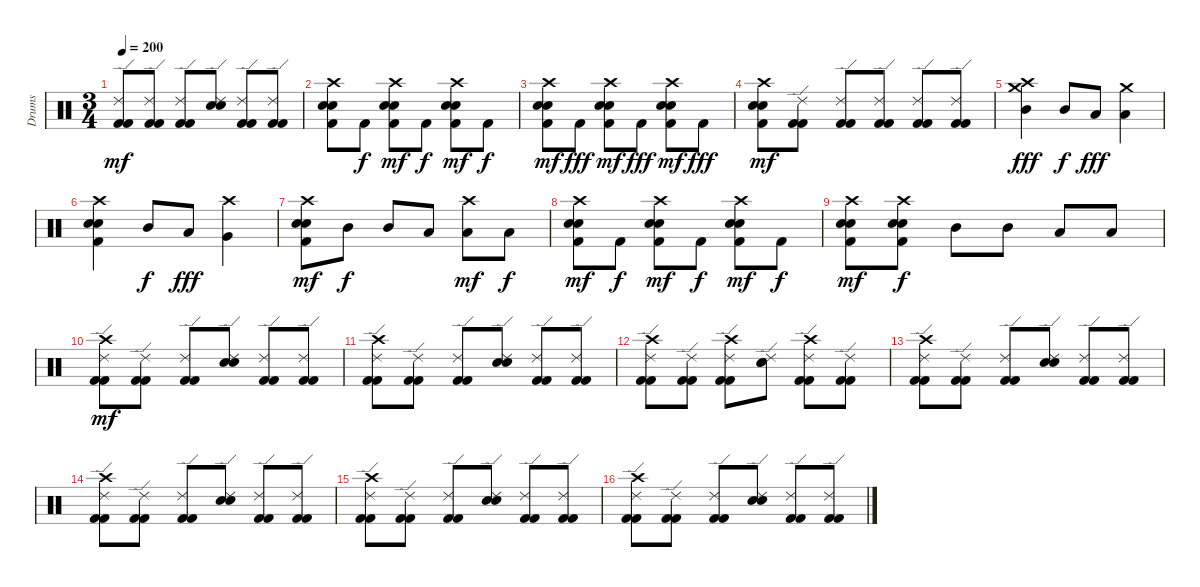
\track ("Drums" "Drums") {instrument percussion bank 41}
\staff
\articulation defaults
\ts (3 4)
\tempo 200
\clef neutral
\ks c
("Kick (hit) 2" "Kick (hit) 2" "Ride (edge) 2").8{dy mf} ("Kick (hit) 2" "Kick (hit) 2" "Ride (edge) 2").8 ("Kick (hit) 2" "Kick (hit) 2" "Ride (edge) 2").8 ("Snare (hit) 2" "Electric Snare (hit)" "Ride (edge) 2").8 ("Kick (hit) 2" "Kick (hit) 2" "Ride (edge) 2").8 ("Kick (hit) 2" "Kick (hit) 2" "Ride (edge) 2").8 |
("Kick (hit) 2" "Snare (hit) 2" "Electric Snare (hit)" "Crash high (hit)").8 "Kick (hit) 2".8{dy f} ("Kick (hit) 2" "Snare (hit) 2" "Electric Snare (hit)" "Crash high (hit)").8{dy mf} "Kick (hit) 2".8{dy f} ("Kick (hit) 2" "Electric Snare (hit)" "Snare (hit) 2" "Crash high (hit)").8{dy mf} "Kick (hit) 2".8{dy f} |
("Kick (hit) 2" "Electric Snare (hit)" "Snare (hit) 2" "Crash high (hit)").8{dy mf} "Kick (hit) 2".8{dy fff} ("Kick (hit) 2" "Electric Snare (hit)" "Snare (hit) 2" "Crash high (hit)").8{dy mf} "Kick (hit) 2".8{dy fff} ("Kick (hit) 2" "Electric Snare (hit)" "Snare (hit) 2" "Crash high (hit)").8{dy mf} "Kick (hit) 2".8{dy fff} |
("Kick (hit) 2" "Electric Snare (hit)" "Snare (hit) 2" "Crash high (hit)").8{dy mf} ("Kick (hit) 2" "Kick (hit) 2" "Ride (edge) 2").8 ("Kick (hit) 2" "Kick (hit) 2" "Ride (edge) 2").8 ("Kick (hit) 2" "Kick (hit) 2" "Ride (edge) 2").8 ("Kick (hit) 2" "Kick (hit) 2" "Ride (edge) 2").8 ("Kick (hit) 2" "Kick (hit) 2" "Ride (edge) 2").8 |
("Mid Tom (hit)" "Crash medium (hit)" "Crash high (hit)").4{dy fff} "Mid Tom (hit)".8{dy f} "Low Tom (hit)".8{dy fff} ("Low Tom (hit)" "Crash medium (hit)").4 |
("Kick (hit) 2" "Snare (hit) 2" "Electric Snare (hit)" "Crash high (hit)").4 "Mid Tom (hit)".8{dy f} "Low Tom (hit)".8{dy fff} ("Very Low Tom (hit)" "Crash high (hit)").4 |
("Kick (hit) 2" "Snare (hit) 2" "Electric Snare (hit)" "Crash high (hit)").8{dy mf} "Mid Tom (hit)".8{dy f} "Mid Tom (hit)".8 "Low Tom (hit)".8 ("Low Tom (hit)" "Crash high (hit)").8{dy mf} "Low Tom (hit)".8{dy f} |
("Kick (hit) 2" "Snare (hit) 2" "Electric Snare (hit)" "Crash high (hit)").8{dy mf} "Kick (hit) 2".8{dy f} ("Kick (hit) 2" "Snare (hit) 2" "Electric Snare (hit)" "Crash high (hit)").8{dy mf} "Kick (hit) 2".8{dy f} ("Kick (hit) 2" "Snare (hit) 2" "Snare (hit) 2" "Crash high (hit)").8{dy mf} "Kick (hit) 2".8{dy f} |
("Kick (hit) 2" "Snare (hit) 2" "Electric Snare (hit)" "Crash high (hit)").8{dy mf} ("Kick (hit) 2" "Snare (hit) 2" "Electric Snare (hit)" "Crash high (hit)").8{dy f} "Mid Tom (hit)".8 "Mid Tom (hit)".8 "Low Tom (hit)".8 "Low Tom (hit)".8 |
("Kick (hit) 2" "Kick (hit) 2" "Ride (edge) 2" "Crash high (hit)").8{dy mf} ("Kick (hit) 2" "Kick (hit) 2" "Ride (edge) 2").8 ("Kick (hit) 2" "Kick (hit) 2" "Ride (edge) 2").8 ("Snare (hit) 2" "Electric Snare (hit)" "Ride (edge) 2").8 ("Kick (hit) 2" "Kick (hit) 2" "Ride (edge) 2").8 ("Kick (hit) 2" "Kick (hit) 2" "Ride (edge) 2").8 |
("Kick (hit) 2" "Kick (hit) 2" "Ride (edge) 2" "Crash high (hit)").8 ("Kick (hit) 2" "Kick (hit) 2" "Ride (edge) 2").8 ("Kick (hit) 2" "Kick (hit) 2" "Ride (edge) 2").8 ("Snare (hit) 2" "Electric Snare (hit)" "Ride (edge) 2").8 ("Kick (hit) 2" "Kick (hit) 2" "Ride (edge) 2").8 ("Kick (hit) 2" "Kick (hit) 2" "Ride (edge) 2").8 |
("Kick (hit) 2" "Kick (hit) 2" "Ride (edge) 2" "Crash high (hit)").8 ("Kick (hit) 2" "Kick (hit) 2" "Ride (edge) 2").8 ("Kick (hit) 2" "Kick (hit) 2" "Ride (edge) 2" "Crash high (hit)").8 ("Snare (hit) 2" "Electric Snare (hit)" "Ride (edge) 2").8 ("Kick (hit) 2" "Kick (hit) 2" "Ride (edge) 2" "Crash high (hit)").8 ("Kick (hit) 2" "Kick (hit) 2" "Ride (edge) 2").8 |
("Kick (hit) 2" "Kick (hit) 2" "Ride (edge) 2" "Crash high (hit)").8 ("Kick (hit) 2" "Kick (hit) 2" "Ride (edge) 2").8 ("Kick (hit) 2" "Kick (hit) 2" "Ride (edge) 2").8 ("Snare (hit) 2" "Electric Snare (hit)" "Ride (edge) 2").8 ("Kick (hit) 2" "Kick (hit) 2" "Ride (edge) 2").8 ("Kick (hit) 2" "Kick (hit) 2" "Ride (edge) 2").8 |
("Kick (hit) 2" "Kick (hit) 2" "Ride (edge) 2" "Crash high (hit)").8 ("Kick (hit) 2" "Kick (hit) 2" "Ride (edge) 2").8 ("Kick (hit) 2" "Kick (hit) 2" "Ride (edge) 2").8 ("Snare (hit) 2" "Electric Snare (hit)" "Ride (edge) 2").8 ("Kick (hit) 2" "Kick (hit) 2" "Ride (edge) 2").8 ("Kick (hit) 2" "Kick (hit) 2" "Ride (edge) 2").8 |
("Kick (hit) 2" "Kick (hit) 2" "Ride (edge) 2" "Crash high (hit)").8 ("Kick (hit) 2" "Kick (hit) 2" "Ride (edge) 2").8 ("Kick (hit) 2" "Kick (hit) 2" "Ride (edge) 2").8 ("Snare (hit) 2" "Electric Snare (hit)" "Ride (edge) 2").8 ("Kick (hit) 2" "Kick (hit) 2" "Ride (edge) 2").8 ("Kick (hit) 2" "Kick (hit) 2" "Ride (edge) 2").8 |
("Kick (hit) 2" "Kick (hit) 2" "Ride (edge) 2" "Crash high (hit)").8 ("Kick (hit) 2" "Kick (hit) 2" "Ride (edge) 2").8 ("Kick (hit) 2" "Kick (hit) 2" "Ride (edge) 2").8 ("Snare (hit) 2" "Electric Snare (hit)" "Ride (edge) 2").8 ("Kick (hit) 2" "Kick (hit) 2" "Ride (edge) 2").8 ("Kick (hit) 2" "Kick (hit) 2" "Ride (edge) 2").8
